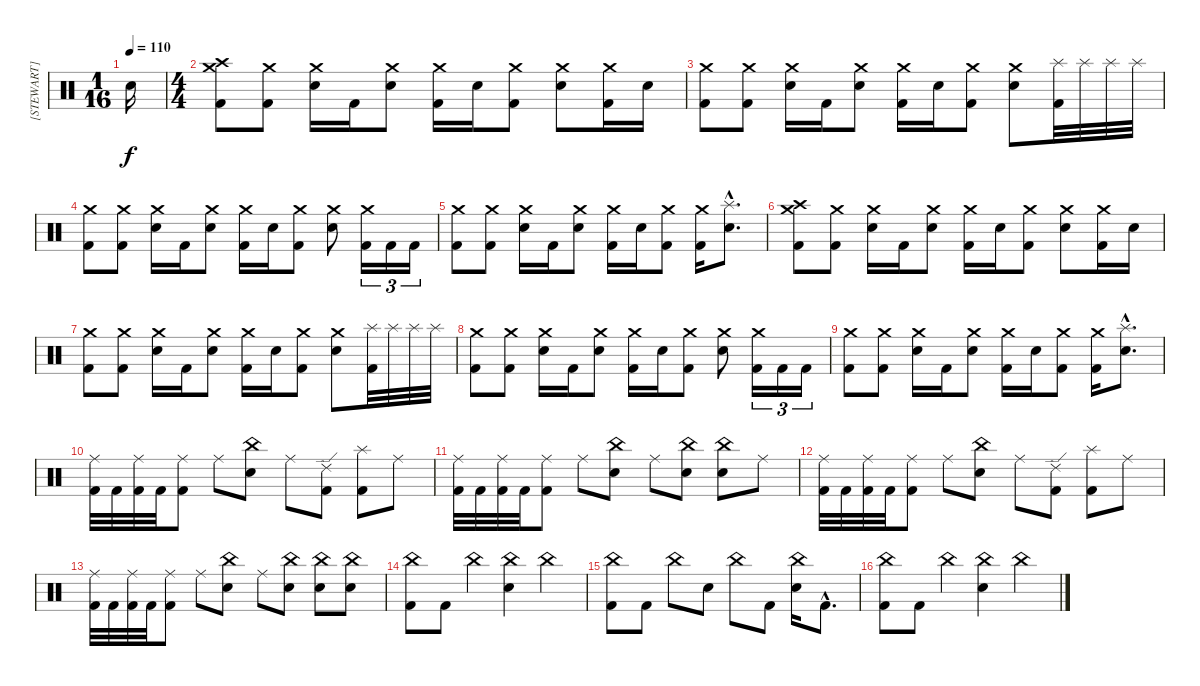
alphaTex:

\track ("[STEWART]" "[STEWART]") {instrument percussion}
\staff {score}
\articulation defaults
\ts (1 16)
\tempo 110
\clef neutral
\ks c "Electric Snare (hit)".16{dy f}
|
\ts (4 4)
("Crash medium (hit)" "Crash high (hit)" "Kick (hit) 2").8 ("Crash medium (hit)" "Kick (hit) 2").8 ("Crash medium (hit)" "Electric Snare (hit)").16 "Kick (hit) 2".16 ("Crash medium (hit)" "Electric Snare (hit)").8 ("Crash medium (hit)" "Kick (hit) 2").16 "Electric Snare (hit)".16 ("Crash medium (hit)" "Kick (hit) 2").8 ("Crash medium (hit)" "Electric Snare (hit)").8 ("Crash medium (hit)" "Kick (hit) 2").16 "Electric Snare (hit)".16 |
("Crash medium (hit)" "Kick (hit) 2").8 ("Crash medium (hit)" "Kick (hit) 2").8 ("Crash medium (hit)" "Electric Snare (hit)").16 "Kick (hit) 2".16 ("Crash medium (hit)" "Electric Snare (hit)").8 ("Crash medium (hit)" "Kick (hit) 2").16 "Electric Snare (hit)".16 ("Crash medium (hit)" "Kick (hit) 2").8 ("Crash medium (hit)" "Electric Snare (hit)").8 ("Splash (hit)" "Kick (hit) 2").32 "Splash (hit)".32 "Splash (hit)".32 "Splash (hit)".32 |
("Crash medium (hit)" "Kick (hit) 2").8 ("Crash medium (hit)" "Kick (hit) 2").8 ("Crash medium (hit)" "Electric Snare (hit)").16 "Kick (hit) 2".16 ("Crash medium (hit)" "Electric Snare (hit)").8 ("Crash medium (hit)" "Kick (hit) 2").16 "Electric Snare (hit)".16 ("Crash medium (hit)" "Kick (hit) 2").8 ("Crash medium (hit)" "Electric Snare (hit)").8 ("Crash medium (hit)" "Kick (hit) 2").16{tu (3 2)} "Kick (hit) 2".16{tu (3 2)} "Kick (hit) 2".16{tu (3 2)} |
("Crash medium (hit)" "Kick (hit) 2").8 ("Crash medium (hit)" "Kick (hit) 2").8 ("Crash medium (hit)" "Electric Snare (hit)").16 "Kick (hit) 2".16 ("Crash medium (hit)" "Electric Snare (hit)").8 ("Crash medium (hit)" "Kick (hit) 2").16 "Electric Snare (hit)".16 ("Crash medium (hit)" "Kick (hit) 2").8 ("Crash medium (hit)" "Kick (hit) 2").16 ("Splash (hit)"{hac} "Electric Snare (hit)"{hac}).8{d} |
("Crash medium (hit)" "Crash high (hit)" "Kick (hit) 2").8 ("Crash medium (hit)" "Kick (hit) 2").8 ("Crash medium (hit)" "Electric Snare (hit)").16 "Kick (hit) 2".16 ("Crash medium (hit)" "Electric Snare (hit)").8 ("Crash medium (hit)" "Kick (hit) 2").16 "Electric Snare (hit)".16 ("Crash medium (hit)" "Kick (hit) 2").8 ("Crash medium (hit)" "Electric Snare (hit)").8 ("Crash medium (hit)" "Kick (hit) 2").16 "Electric Snare (hit)".16 |
("Crash medium (hit)" "Kick (hit) 2").8 ("Crash medium (hit)" "Kick (hit) 2").8 ("Crash medium (hit)" "Electric Snare (hit)").16 "Kick (hit) 2".16 ("Crash medium (hit)" "Electric Snare (hit)").8 ("Crash medium (hit)" "Kick (hit) 2").16 "Electric Snare (hit)".16 ("Crash medium (hit)" "Kick (hit) 2").8 ("Crash medium (hit)" "Electric Snare (hit)").8 ("Splash (hit)" "Kick (hit) 2").32 "Splash (hit)".32 "Splash (hit)".32 "Splash (hit)".32 |
("Crash medium (hit)" "Kick (hit) 2").8 ("Crash medium (hit)" "Kick (hit) 2").8 ("Crash medium (hit)" "Electric Snare (hit)").16 "Kick (hit) 2".16 ("Crash medium (hit)" "Electric Snare (hit)").8 ("Crash medium (hit)" "Kick (hit) 2").16 "Electric Snare (hit)".16 ("Crash medium (hit)" "Kick (hit) 2").8 ("Crash medium (hit)" "Electric Snare (hit)").8 ("Crash medium (hit)" "Kick (hit) 2").16{tu (3 2)} "Kick (hit) 2".16{tu (3 2)} "Kick (hit) 2".16{tu (3 2)} |
("Crash medium (hit)" "Kick (hit) 2").8 ("Crash medium (hit)" "Kick (hit) 2").8 ("Crash medium (hit)" "Electric Snare (hit)").16 "Kick (hit) 2".16 ("Crash medium (hit)" "Electric Snare (hit)").8 ("Crash medium (hit)" "Kick (hit) 2").16 "Electric Snare (hit)".16 ("Crash medium (hit)" "Kick (hit) 2").8 ("Crash medium (hit)" "Kick (hit) 2").16 ("Splash (hit)"{hac} "Electric Snare (hit)"{hac}).8{d} |
("Ride (middle)" "Kick (hit) 2").32 "Kick (hit) 2".32 ("Ride (middle)" "Kick (hit) 2").32 "Kick (hit) 2".32 ("Ride (middle)" "Kick (hit) 2").8 "Ride (middle)".8 ("China (hit)" "Electric Snare (hit)").8 "Ride (middle)".8 ("Ride (edge) 2" "Kick (hit) 2").8 ("Splash (hit)" "Kick (hit) 2").8 "Ride (middle)".8 |
("Ride (middle)" "Kick (hit) 2").32 "Kick (hit) 2".32 ("Ride (middle)" "Kick (hit) 2").32 "Kick (hit) 2".32 ("Ride (middle)" "Kick (hit) 2").8 "Ride (middle)".8 ("China (hit)" "Electric Snare (hit)").8 "Ride (middle)".8 ("China (hit)" "Electric Snare (hit)").8 ("China (hit)" "Electric Snare (hit)").8 "Ride (middle)".8 |
("Ride (middle)" "Kick (hit) 2").32 "Kick (hit) 2".32 ("Ride (middle)" "Kick (hit) 2").32 "Kick (hit) 2".32 ("Ride (middle)" "Kick (hit) 2").8 "Ride (middle)".8 ("China (hit)" "Electric Snare (hit)").8 "Ride (middle)".8 ("Ride (edge) 2" "Kick (hit) 2").8 ("Splash (hit)" "Kick (hit) 2").8 "Ride (middle)".8 |
("Ride (middle)" "Kick (hit) 2").32 "Kick (hit) 2".32 ("Ride (middle)" "Kick (hit) 2").32 "Kick (hit) 2".32 ("Ride (middle)" "Kick (hit) 2").8 "Ride (middle)".8 ("China (hit)" "Electric Snare (hit)").8 "Ride (middle)".8 ("China (hit)" "Electric Snare (hit)").8 ("China (hit)" "Electric Snare (hit)").8 ("China (hit)" "Electric Snare (hit)").8 |
("China (hit)" "Kick (hit) 2").8 "Kick (hit) 2".8 "China (hit)".4 ("China (hit)" "Electric Snare (hit)").4 "China (hit)".4 |
("China (hit)" "Kick (hit) 2").8 "Kick (hit) 2".8 "China (hit)".8 "Electric Snare (hit)".8 "China (hit)".8 "Kick (hit) 2".8 ("China (hit)" "Electric Snare (hit)").16 "Kick (hit) 2"{hac}.8{d} |
("China (hit)" "Kick (hit) 2").8 "Kick (hit) 2".8 "China (hit)".4 ("China (hit)" "Electric Snare (hit)").4 "China (hit)".4
